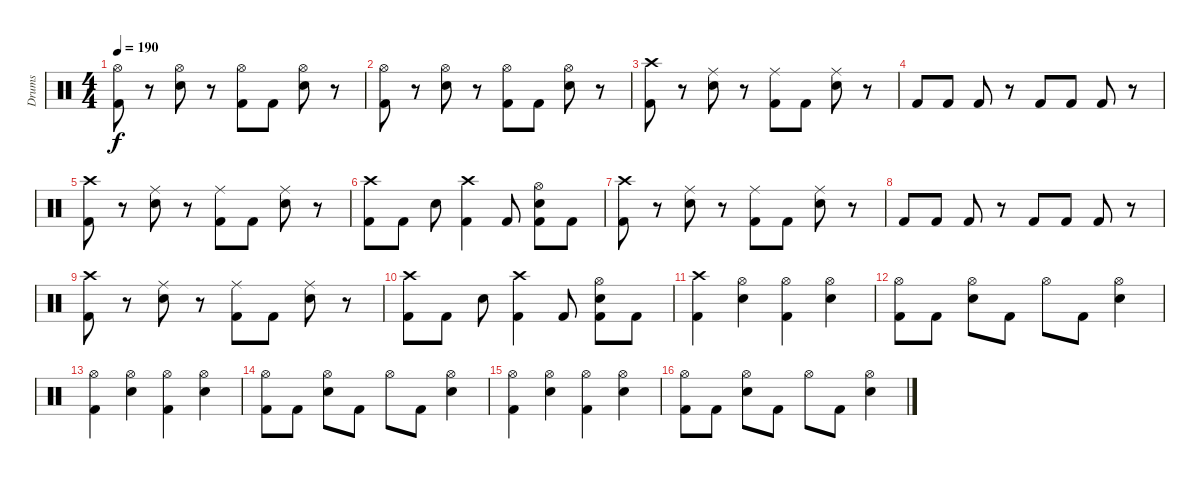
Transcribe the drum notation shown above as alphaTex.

\track ("Drums" "Drums") {instrument percussion}
\staff {score}
\articulation defaults
\ts (4 4)
\tempo 190
\clef neutral
\ks c
("Hi-Hat (open)" "Kick (hit) 2").8{dy f} r.8 ("Hi-Hat (open)" "Electric Snare (hit)").8 r.8 ("Hi-Hat (open)" "Kick (hit) 2").8 "Kick (hit) 2".8 ("Hi-Hat (open)" "Electric Snare (hit)").8 r.8 |
("Hi-Hat (open)" "Kick (hit) 2").8 r.8 ("Hi-Hat (open)" "Electric Snare (hit)").8 r.8 ("Hi-Hat (open)" "Kick (hit) 2").8 "Kick (hit) 2".8 ("Hi-Hat (open)" "Electric Snare (hit)").8 r.8 |
("Crash high (hit)" "Kick (hit) 2").8 r.8 ("Ride (middle)" "Electric Snare (hit)").8 r.8 ("Ride (middle)" "Kick (hit) 2").8 "Kick (hit) 2".8 ("Ride (middle)" "Electric Snare (hit)").8 r.8 |
"Kick (hit) 2".8 "Kick (hit) 2".8 "Kick (hit) 2".8 r.8 "Kick (hit) 2".8 "Kick (hit) 2".8 "Kick (hit) 2".8 r.8 |
("Crash high (hit)" "Kick (hit) 2").8 r.8 ("Ride (middle)" "Electric Snare (hit)").8 r.8 ("Ride (middle)" "Kick (hit) 2").8 "Kick (hit) 2".8 ("Ride (middle)" "Electric Snare (hit)").8 r.8 |
("Crash high (hit)" "Kick (hit) 2").8 "Kick (hit) 2".8 "Electric Snare (hit)".8 ("Crash high (hit)" "Kick (hit) 2").4 "Kick (hit) 2".8 ("Hi-Hat (open)" "Electric Snare (hit)" "Kick (hit) 2").8 "Kick (hit) 2".8 |
("Crash high (hit)" "Kick (hit) 2").8 r.8 ("Ride (middle)" "Electric Snare (hit)").8 r.8 ("Ride (middle)" "Kick (hit) 2").8 "Kick (hit) 2".8 ("Ride (middle)" "Electric Snare (hit)").8 r.8 |
"Kick (hit) 2".8 "Kick (hit) 2".8 "Kick (hit) 2".8 r.8 "Kick (hit) 2".8 "Kick (hit) 2".8 "Kick (hit) 2".8 r.8 |
("Crash high (hit)" "Kick (hit) 2").8 r.8 ("Ride (middle)" "Electric Snare (hit)").8 r.8 ("Ride (middle)" "Kick (hit) 2").8 "Kick (hit) 2".8 ("Ride (middle)" "Electric Snare (hit)").8 r.8 |
("Crash high (hit)" "Kick (hit) 2").8 "Kick (hit) 2".8 "Electric Snare (hit)".8 ("Crash high (hit)" "Kick (hit) 2").4 "Kick (hit) 2".8 ("Hi-Hat (open)" "Electric Snare (hit)" "Kick (hit) 2").8 "Kick (hit) 2".8 |
("Crash high (hit)" "Kick (hit) 2").4 ("Hi-Hat (open)" "Electric Snare (hit)").4 ("Hi-Hat (open)" "Kick (hit) 2").4 ("Hi-Hat (open)" "Electric Snare (hit)").4 |
("Hi-Hat (open)" "Kick (hit) 2").8 "Kick (hit) 2".8 ("Hi-Hat (open)" "Electric Snare (hit)").8 "Kick (hit) 2".8 "Hi-Hat (open)".8 "Kick (hit) 2".8 ("Hi-Hat (open)" "Electric Snare (hit)").4 |
("Hi-Hat (open)" "Kick (hit) 2").4 ("Hi-Hat (open)" "Electric Snare (hit)").4 ("Hi-Hat (open)" "Kick (hit) 2").4 ("Hi-Hat (open)" "Electric Snare (hit)").4 |
("Hi-Hat (open)" "Kick (hit) 2").8 "Kick (hit) 2".8 ("Hi-Hat (open)" "Electric Snare (hit)").8 "Kick (hit) 2".8 "Hi-Hat (open)".8 "Kick (hit) 2".8 ("Hi-Hat (open)" "Electric Snare (hit)").4 |
("Hi-Hat (open)" "Kick (hit) 2").4 ("Hi-Hat (open)" "Electric Snare (hit)").4 ("Hi-Hat (open)" "Kick (hit) 2").4 ("Hi-Hat (open)" "Electric Snare (hit)").4 |
("Hi-Hat (open)" "Kick (hit) 2").8 "Kick (hit) 2".8 ("Hi-Hat (open)" "Electric Snare (hit)").8 "Kick (hit) 2".8 "Hi-Hat (open)".8 "Kick (hit) 2".8 ("Hi-Hat (open)" "Electric Snare (hit)").4
